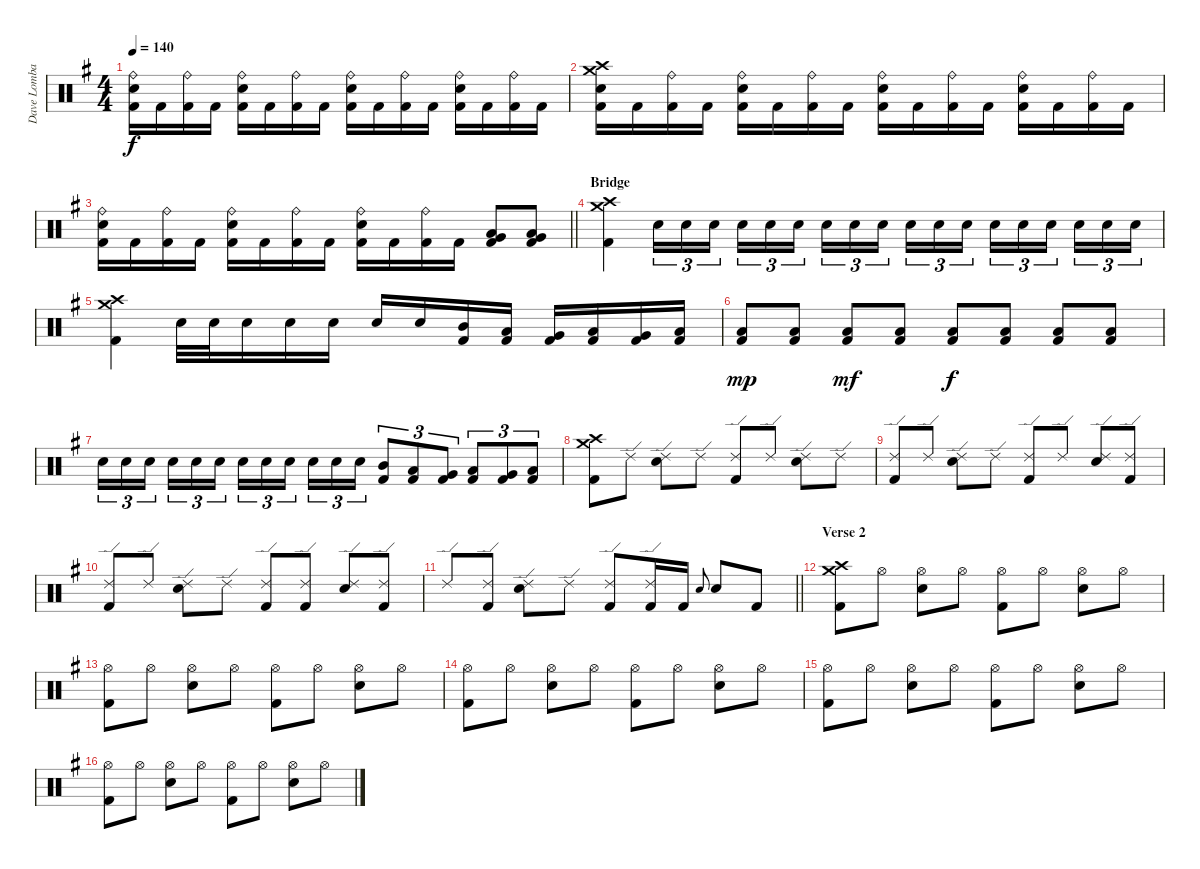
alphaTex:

\track ("Dave Lombardo" "Dave Lomba") {instrument percussion}
\staff {score}
\articulation defaults
\ts (4 4)
\tempo 140
\clef neutral
\ks g
("Ride (bell)" "Electric Snare (hit)" "Kick (hit) 2").16{dy f} "Kick (hit) 2".16 ("Ride (bell)" "Kick (hit) 2").16 "Kick (hit) 2".16 ("Ride (bell)" "Electric Snare (hit)" "Kick (hit) 2").16 "Kick (hit) 2".16 ("Ride (bell)" "Kick (hit) 2").16 "Kick (hit) 2".16 ("Ride (bell)" "Electric Snare (hit)" "Kick (hit) 2").16 "Kick (hit) 2".16 ("Ride (bell)" "Kick (hit) 2").16 "Kick (hit) 2".16 ("Ride (bell)" "Electric Snare (hit)" "Kick (hit) 2").16 "Kick (hit) 2".16 ("Ride (bell)" "Kick (hit) 2").16 "Kick (hit) 2".16 |
("Crash high (hit)" "Crash medium (hit)" "Electric Snare (hit)" "Kick (hit) 2").16 "Kick (hit) 2".16 ("Ride (bell)" "Kick (hit) 2").16 "Kick (hit) 2".16 ("Ride (bell)" "Electric Snare (hit)" "Kick (hit) 2").16 "Kick (hit) 2".16 ("Ride (bell)" "Kick (hit) 2").16 "Kick (hit) 2".16 ("Ride (bell)" "Electric Snare (hit)" "Kick (hit) 2").16 "Kick (hit) 2".16 ("Ride (bell)" "Kick (hit) 2").16 "Kick (hit) 2".16 ("Ride (bell)" "Electric Snare (hit)" "Kick (hit) 2").16 "Kick (hit) 2".16 ("Ride (bell)" "Kick (hit) 2").16 "Kick (hit) 2".16 |
\barLineRight lightlight
("Ride (bell)" "Electric Snare (hit)" "Kick (hit) 2").16 "Kick (hit) 2".16 ("Ride (bell)" "Kick (hit) 2").16 "Kick (hit) 2".16 ("Ride (bell)" "Electric Snare (hit)" "Kick (hit) 2").16 "Kick (hit) 2".16 ("Ride (bell)" "Kick (hit) 2").16 "Kick (hit) 2".16 ("Ride (bell)" "Electric Snare (hit)" "Kick (hit) 2").16 "Kick (hit) 2".16 ("Ride (bell)" "Kick (hit) 2").16 "Kick (hit) 2".16 ("Very Low Tom (hit)" "Low Floor Tom (hit)" "Kick (hit) 2").8 ("Very Low Tom (hit)" "Low Floor Tom (hit)" "Kick (hit) 2").8 |
\section ("" "Bridge")
("Crash high (hit)" "Crash medium (hit)" "Kick (hit) 2").4 "Electric Snare (hit)".16{tu (3 2)} "Electric Snare (hit)".16{tu (3 2)} "Electric Snare (hit)".16{tu (3 2) beam splitsecondary} "Electric Snare (hit)".16{tu (3 2)} "Electric Snare (hit)".16{tu (3 2)} "Electric Snare (hit)".16{tu (3 2)} "Electric Snare (hit)".16{tu (3 2)} "Electric Snare (hit)".16{tu (3 2)} "Electric Snare (hit)".16{tu (3 2) beam splitsecondary} "Electric Snare (hit)".16{tu (3 2)} "Electric Snare (hit)".16{tu (3 2)} "Electric Snare (hit)".16{tu (3 2)} "Electric Snare (hit)".16{tu (3 2)} "Electric Snare (hit)".16{tu (3 2)} "Electric Snare (hit)".16{tu (3 2) beam splitsecondary} "Electric Snare (hit)".16{tu (3 2)} "Electric Snare (hit)".16{tu (3 2)} "Electric Snare (hit)".16{tu (3 2)} |
("Crash high (hit)" "Crash medium (hit)" "Kick (hit) 2").4 "Electric Snare (hit)".32 "Electric Snare (hit)".32 "Electric Snare (hit)".16 "Electric Snare (hit)".16 "Electric Snare (hit)".16 "Electric Snare (hit)".16 "Electric Snare (hit)".16 ("Mid Tom (hit)" "Kick (hit) 2").16 ("Low Tom (hit)" "Kick (hit) 2").16 ("Very Low Tom (hit)" "Kick (hit) 2").16 ("Low Tom (hit)" "Kick (hit) 2").16 ("Very Low Tom (hit)" "Kick (hit) 2").16 ("Low Floor Tom (hit)" "Kick (hit) 2").16 |
("Low Floor Tom (hit)" "Kick (hit) 2").8{dy mp} ("Low Floor Tom (hit)" "Kick (hit) 2").8 ("Low Floor Tom (hit)" "Kick (hit) 2").8{dy mf} ("Low Floor Tom (hit)" "Kick (hit) 2").8 ("Low Floor Tom (hit)" "Kick (hit) 2").8{dy f} ("Low Floor Tom (hit)" "Kick (hit) 2").8 ("Low Floor Tom (hit)" "Kick (hit) 2").8 ("Low Floor Tom (hit)" "Kick (hit) 2").8 |
"Electric Snare (hit)".16{tu (3 2)} "Electric Snare (hit)".16{tu (3 2)} "Electric Snare (hit)".16{tu (3 2) beam splitsecondary} "Electric Snare (hit)".16{tu (3 2)} "Electric Snare (hit)".16{tu (3 2)} "Electric Snare (hit)".16{tu (3 2)} "Electric Snare (hit)".16{tu (3 2)} "Electric Snare (hit)".16{tu (3 2)} "Electric Snare (hit)".16{tu (3 2) beam splitsecondary} "Electric Snare (hit)".16{tu (3 2)} "Electric Snare (hit)".16{tu (3 2)} "Electric Snare (hit)".16{tu (3 2)} ("Mid Tom (hit)" "Kick (hit) 2").8{tu (3 2)} ("Low Tom (hit)" "Kick (hit) 2").8{tu (3 2)} ("Very Low Tom (hit)" "Kick (hit) 2").8{tu (3 2)} ("Low Tom (hit)" "Kick (hit) 2").8{tu (3 2)} ("Very Low Tom (hit)" "Kick (hit) 2").8{tu (3 2)} ("Low Floor Tom (hit)" "Kick (hit) 2").8{tu (3 2)} |
("Crash high (hit)" "Crash medium (hit)" "Kick (hit) 2").8 "Ride (edge) 2".8 ("Ride (edge) 2" "Electric Snare (hit)").8 "Ride (edge) 2".8 ("Ride (edge) 2" "Kick (hit) 2").8 "Ride (edge) 2".8 ("Ride (edge) 2" "Electric Snare (hit)").8 "Ride (edge) 2".8 |
("Ride (edge) 2" "Kick (hit) 2").8 "Ride (edge) 2".8 ("Ride (edge) 2" "Electric Snare (hit)").8 "Ride (edge) 2".8 ("Ride (edge) 2" "Kick (hit) 2").8 "Ride (edge) 2".8 ("Ride (edge) 2" "Electric Snare (hit)").8 ("Ride (edge) 2" "Kick (hit) 2").8 |
("Ride (edge) 2" "Kick (hit) 2").8 "Ride (edge) 2".8 ("Ride (edge) 2" "Electric Snare (hit)").8 "Ride (edge) 2".8 ("Ride (edge) 2" "Kick (hit) 2").8 ("Ride (edge) 2" "Kick (hit) 2").8 ("Ride (edge) 2" "Electric Snare (hit)").8 ("Ride (edge) 2" "Kick (hit) 2").8 |
\barLineRight lightlight "Ride (edge) 2".8
("Ride (edge) 2" "Kick (hit) 2").8 ("Ride (edge) 2" "Electric Snare (hit)").8 "Ride (edge) 2".8 ("Ride (edge) 2" "Kick (hit) 2").8 ("Ride (edge) 2" "Kick (hit) 2").16 "Kick (hit) 2".16 "Electric Snare (hit)".8{gr onbeat} "Electric Snare (hit)".8 "Kick (hit) 2".8 |
\section ("" "Verse 2")
("Crash high (hit)" "Crash medium (hit)" "Kick (hit) 2").8 "Hi-Hat (open)".8 ("Hi-Hat (open)" "Electric Snare (hit)").8 "Hi-Hat (open)".8 ("Hi-Hat (open)" "Kick (hit) 2").8 "Hi-Hat (open)".8 ("Hi-Hat (open)" "Electric Snare (hit)").8 "Hi-Hat (open)".8 |
("Hi-Hat (open)" "Kick (hit) 2").8 "Hi-Hat (open)".8 ("Hi-Hat (open)" "Electric Snare (hit)").8 "Hi-Hat (open)".8 ("Hi-Hat (open)" "Kick (hit) 2").8 "Hi-Hat (open)".8 ("Hi-Hat (open)" "Electric Snare (hit)").8 "Hi-Hat (open)".8 |
("Hi-Hat (open)" "Kick (hit) 2").8 "Hi-Hat (open)".8 ("Hi-Hat (open)" "Electric Snare (hit)").8 "Hi-Hat (open)".8 ("Hi-Hat (open)" "Kick (hit) 2").8 "Hi-Hat (open)".8 ("Hi-Hat (open)" "Electric Snare (hit)").8 "Hi-Hat (open)".8 |
("Hi-Hat (open)" "Kick (hit) 2").8 "Hi-Hat (open)".8 ("Hi-Hat (open)" "Electric Snare (hit)").8 "Hi-Hat (open)".8 ("Hi-Hat (open)" "Kick (hit) 2").8 "Hi-Hat (open)".8 ("Hi-Hat (open)" "Electric Snare (hit)").8 "Hi-Hat (open)".8 |
("Hi-Hat (open)" "Kick (hit) 2").8 "Hi-Hat (open)".8 ("Hi-Hat (open)" "Electric Snare (hit)").8 "Hi-Hat (open)".8 ("Hi-Hat (open)" "Kick (hit) 2").8 "Hi-Hat (open)".8 ("Hi-Hat (open)" "Electric Snare (hit)").8 "Hi-Hat (open)".8
